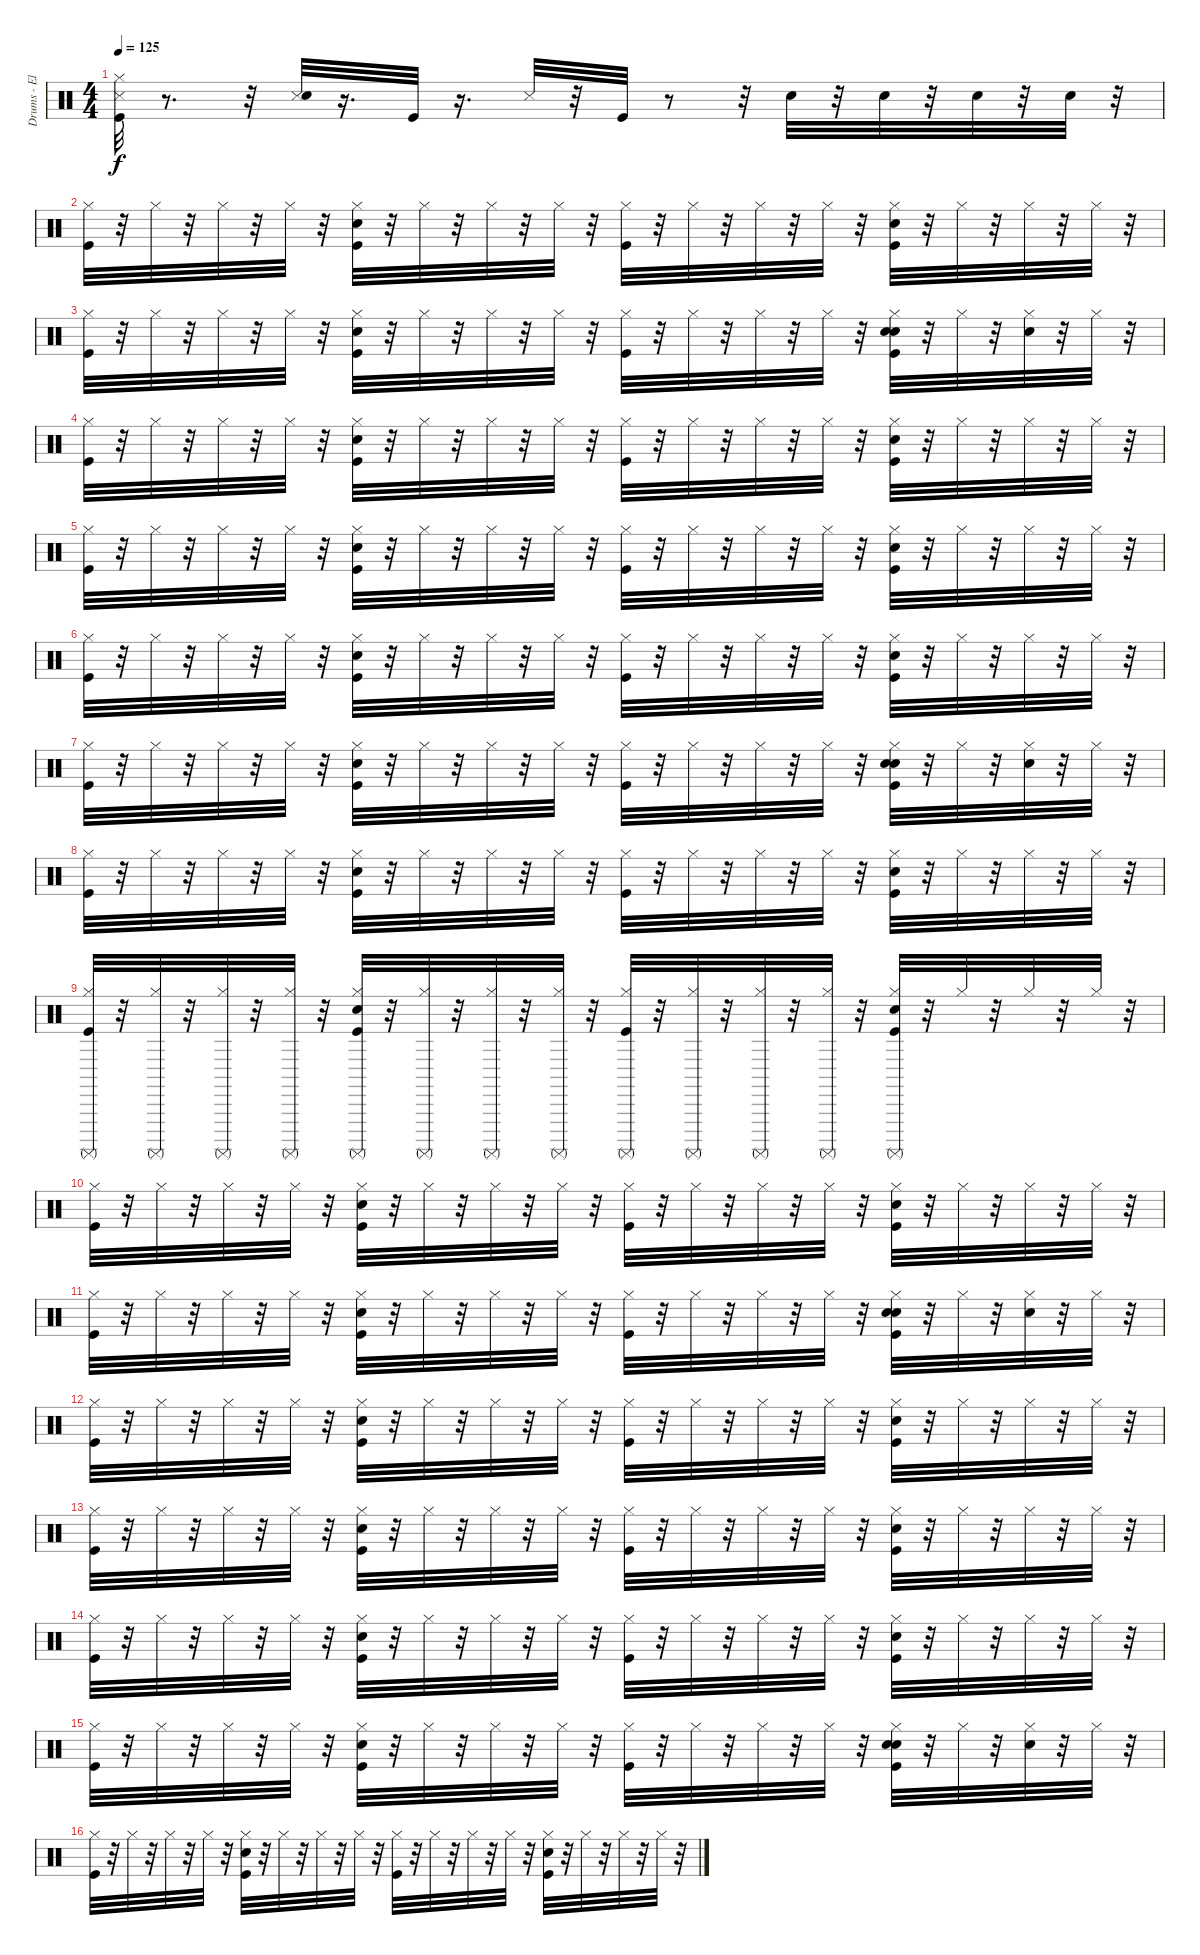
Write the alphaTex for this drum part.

\track ("Drums - El" "Drums - El") {instrument percussion}
\staff {score}
\articulation defaults
\ts (4 4)
\tempo 125
\clef neutral
\ks c
("Kick (hit)" "Snare (side stick) 3" "Hi-Hat (closed)").32{dy f} r.8{d} r.32 ("Snare (side stick) 3" "Electric Snare (hit)").32 r.16{d} "Kick (hit)".32 r.16{d} "Snare (side stick) 3".32 r.32 "Kick (hit)".32 r.8 r.32 "Electric Snare (hit)".32 r.32 "Electric Snare (hit)".32 r.32 "Electric Snare (hit)".32 r.32 "Electric Snare (hit)".32 r.32 |
("Kick (hit)" "Hi-Hat (closed)").32 r.32 "Hi-Hat (closed)".32 r.32 "Hi-Hat (closed)".32 r.32 "Hi-Hat (closed)".32 r.32 ("Kick (hit)" "Electric Snare (hit)" "Hi-Hat (closed)").32 r.32 "Hi-Hat (closed)".32 r.32 "Hi-Hat (closed)".32 r.32 "Hi-Hat (closed)".32 r.32 ("Kick (hit)" "Hi-Hat (closed)").32 r.32 "Hi-Hat (closed)".32 r.32 "Hi-Hat (closed)".32 r.32 "Hi-Hat (closed)".32 r.32 ("Kick (hit)" "Electric Snare (hit)" "Hi-Hat (closed)").32 r.32 "Hi-Hat (closed)".32 r.32 "Hi-Hat (closed)".32 r.32 "Hi-Hat (closed)".32 r.32 |
("Kick (hit)" "Hi-Hat (closed)").32 r.32 "Hi-Hat (closed)".32 r.32 "Hi-Hat (closed)".32 r.32 "Hi-Hat (closed)".32 r.32 ("Kick (hit)" "Electric Snare (hit)" "Hi-Hat (closed)").32 r.32 "Hi-Hat (closed)".32 r.32 "Hi-Hat (closed)".32 r.32 "Hi-Hat (closed)".32 r.32 ("Kick (hit)" "Hi-Hat (closed)").32 r.32 "Hi-Hat (closed)".32 r.32 "Hi-Hat (closed)".32 r.32 "Hi-Hat (closed)".32 r.32 ("Kick (hit)" "Electric Snare (hit)" "Hand Clap (hit)" "Hi-Hat (closed)").32 r.32 "Hi-Hat (closed)".32 r.32 ("Hand Clap (hit)" "Hi-Hat (closed)").32 r.32 "Hi-Hat (closed)".32 r.32 |
("Kick (hit)" "Hi-Hat (closed)").32 r.32 "Hi-Hat (closed)".32 r.32 "Hi-Hat (closed)".32 r.32 "Hi-Hat (closed)".32 r.32 ("Kick (hit)" "Electric Snare (hit)" "Hi-Hat (closed)").32 r.32 "Hi-Hat (closed)".32 r.32 "Hi-Hat (closed)".32 r.32 "Hi-Hat (closed)".32 r.32 ("Kick (hit)" "Hi-Hat (closed)").32 r.32 "Hi-Hat (closed)".32 r.32 "Hi-Hat (closed)".32 r.32 "Hi-Hat (closed)".32 r.32 ("Kick (hit)" "Electric Snare (hit)" "Hi-Hat (closed)").32 r.32 "Hi-Hat (closed)".32 r.32 "Hi-Hat (closed)".32 r.32 "Hi-Hat (closed)".32 r.32 |
("Kick (hit)" "Hi-Hat (closed)").32 r.32 "Hi-Hat (closed)".32 r.32 "Hi-Hat (closed)".32 r.32 "Hi-Hat (closed)".32 r.32 ("Kick (hit)" "Electric Snare (hit)" "Hi-Hat (closed)").32 r.32 "Hi-Hat (closed)".32 r.32 "Hi-Hat (closed)".32 r.32 "Hi-Hat (closed)".32 r.32 ("Kick (hit)" "Hi-Hat (closed)").32 r.32 "Hi-Hat (closed)".32 r.32 "Hi-Hat (closed)".32 r.32 "Hi-Hat (closed)".32 r.32 ("Kick (hit)" "Electric Snare (hit)" "Hi-Hat (closed)").32 r.32 "Hi-Hat (closed)".32 r.32 "Hi-Hat (closed)".32 r.32 "Hi-Hat (closed)".32 r.32 |
("Kick (hit)" "Hi-Hat (closed)").32 r.32 "Hi-Hat (closed)".32 r.32 "Hi-Hat (closed)".32 r.32 "Hi-Hat (closed)".32 r.32 ("Kick (hit)" "Electric Snare (hit)" "Hi-Hat (closed)").32 r.32 "Hi-Hat (closed)".32 r.32 "Hi-Hat (closed)".32 r.32 "Hi-Hat (closed)".32 r.32 ("Kick (hit)" "Hi-Hat (closed)").32 r.32 "Hi-Hat (closed)".32 r.32 "Hi-Hat (closed)".32 r.32 "Hi-Hat (closed)".32 r.32 ("Kick (hit)" "Electric Snare (hit)" "Hi-Hat (closed)").32 r.32 "Hi-Hat (closed)".32 r.32 "Hi-Hat (closed)".32 r.32 "Hi-Hat (closed)".32 r.32 |
("Kick (hit)" "Hi-Hat (closed)").32 r.32 "Hi-Hat (closed)".32 r.32 "Hi-Hat (closed)".32 r.32 "Hi-Hat (closed)".32 r.32 ("Kick (hit)" "Electric Snare (hit)" "Hi-Hat (closed)").32 r.32 "Hi-Hat (closed)".32 r.32 "Hi-Hat (closed)".32 r.32 "Hi-Hat (closed)".32 r.32 ("Kick (hit)" "Hi-Hat (closed)").32 r.32 "Hi-Hat (closed)".32 r.32 "Hi-Hat (closed)".32 r.32 "Hi-Hat (closed)".32 r.32 ("Kick (hit)" "Electric Snare (hit)" "Hand Clap (hit)" "Hi-Hat (closed)").32 r.32 "Hi-Hat (closed)".32 r.32 ("Hand Clap (hit)" "Hi-Hat (closed)").32 r.32 "Hi-Hat (closed)".32 r.32 |
("Kick (hit)" "Hi-Hat (closed)").32 r.32 "Hi-Hat (closed)".32 r.32 "Hi-Hat (closed)".32 r.32 "Hi-Hat (closed)".32 r.32 ("Kick (hit)" "Electric Snare (hit)" "Hi-Hat (closed)").32 r.32 "Hi-Hat (closed)".32 r.32 "Hi-Hat (closed)".32 r.32 "Hi-Hat (closed)".32 r.32 ("Kick (hit)" "Hi-Hat (closed)").32 r.32 "Hi-Hat (closed)".32 r.32 "Hi-Hat (closed)".32 r.32 "Hi-Hat (closed)".32 r.32 ("Kick (hit)" "Electric Snare (hit)" "Hi-Hat (closed)").32 r.32 "Hi-Hat (closed)".32 r.32 "Hi-Hat (closed)".32 r.32 "Hi-Hat (closed)".32 r.32 |
("Kick (hit)" "Hi-Hat (closed)" "Surdo (mute)").32 r.32 ("Hi-Hat (closed)" "Surdo (mute)").32 r.32 ("Hi-Hat (closed)" "Surdo (mute)").32 r.32 ("Hi-Hat (closed)" "Surdo (mute)").32 r.32 ("Kick (hit)" "Electric Snare (hit)" "Hi-Hat (closed)" "Surdo (mute)").32 r.32 ("Hi-Hat (closed)" "Surdo (mute)").32 r.32 ("Hi-Hat (closed)" "Surdo (mute)").32 r.32 ("Hi-Hat (closed)" "Surdo (mute)").32 r.32 ("Kick (hit)" "Hi-Hat (closed)" "Surdo (mute)").32 r.32 ("Hi-Hat (closed)" "Surdo (mute)").32 r.32 ("Hi-Hat (closed)" "Surdo (mute)").32 r.32 ("Hi-Hat (closed)" "Surdo (mute)").32 r.32 ("Kick (hit)" "Electric Snare (hit)" "Hi-Hat (closed)" "Surdo (mute)").32 r.32 "Hi-Hat (closed)".32 r.32 "Hi-Hat (closed)".32 r.32 "Hi-Hat (closed)".32 r.32 |
("Kick (hit)" "Hi-Hat (closed)").32 r.32 "Hi-Hat (closed)".32 r.32 "Hi-Hat (closed)".32 r.32 "Hi-Hat (closed)".32 r.32 ("Kick (hit)" "Electric Snare (hit)" "Hi-Hat (closed)").32 r.32 "Hi-Hat (closed)".32 r.32 "Hi-Hat (closed)".32 r.32 "Hi-Hat (closed)".32 r.32 ("Kick (hit)" "Hi-Hat (closed)").32 r.32 "Hi-Hat (closed)".32 r.32 "Hi-Hat (closed)".32 r.32 "Hi-Hat (closed)".32 r.32 ("Kick (hit)" "Electric Snare (hit)" "Hi-Hat (closed)").32 r.32 "Hi-Hat (closed)".32 r.32 "Hi-Hat (closed)".32 r.32 "Hi-Hat (closed)".32 r.32 |
("Kick (hit)" "Hi-Hat (closed)").32 r.32 "Hi-Hat (closed)".32 r.32 "Hi-Hat (closed)".32 r.32 "Hi-Hat (closed)".32 r.32 ("Kick (hit)" "Electric Snare (hit)" "Hi-Hat (closed)").32 r.32 "Hi-Hat (closed)".32 r.32 "Hi-Hat (closed)".32 r.32 "Hi-Hat (closed)".32 r.32 ("Kick (hit)" "Hi-Hat (closed)").32 r.32 "Hi-Hat (closed)".32 r.32 "Hi-Hat (closed)".32 r.32 "Hi-Hat (closed)".32 r.32 ("Kick (hit)" "Electric Snare (hit)" "Hand Clap (hit)" "Hi-Hat (closed)").32 r.32 "Hi-Hat (closed)".32 r.32 ("Hand Clap (hit)" "Hi-Hat (closed)").32 r.32 "Hi-Hat (closed)".32 r.32 |
("Kick (hit)" "Hi-Hat (closed)").32 r.32 "Hi-Hat (closed)".32 r.32 "Hi-Hat (closed)".32 r.32 "Hi-Hat (closed)".32 r.32 ("Kick (hit)" "Electric Snare (hit)" "Hi-Hat (closed)").32 r.32 "Hi-Hat (closed)".32 r.32 "Hi-Hat (closed)".32 r.32 "Hi-Hat (closed)".32 r.32 ("Kick (hit)" "Hi-Hat (closed)").32 r.32 "Hi-Hat (closed)".32 r.32 "Hi-Hat (closed)".32 r.32 "Hi-Hat (closed)".32 r.32 ("Kick (hit)" "Electric Snare (hit)" "Hi-Hat (closed)").32 r.32 "Hi-Hat (closed)".32 r.32 "Hi-Hat (closed)".32 r.32 "Hi-Hat (closed)".32 r.32 |
("Kick (hit)" "Hi-Hat (closed)").32 r.32 "Hi-Hat (closed)".32 r.32 "Hi-Hat (closed)".32 r.32 "Hi-Hat (closed)".32 r.32 ("Kick (hit)" "Electric Snare (hit)" "Hi-Hat (closed)").32 r.32 "Hi-Hat (closed)".32 r.32 "Hi-Hat (closed)".32 r.32 "Hi-Hat (closed)".32 r.32 ("Kick (hit)" "Hi-Hat (closed)").32 r.32 "Hi-Hat (closed)".32 r.32 "Hi-Hat (closed)".32 r.32 "Hi-Hat (closed)".32 r.32 ("Kick (hit)" "Electric Snare (hit)" "Hi-Hat (closed)").32 r.32 "Hi-Hat (closed)".32 r.32 "Hi-Hat (closed)".32 r.32 "Hi-Hat (closed)".32 r.32 |
("Kick (hit)" "Hi-Hat (closed)").32 r.32 "Hi-Hat (closed)".32 r.32 "Hi-Hat (closed)".32 r.32 "Hi-Hat (closed)".32 r.32 ("Kick (hit)" "Electric Snare (hit)" "Hi-Hat (closed)").32 r.32 "Hi-Hat (closed)".32 r.32 "Hi-Hat (closed)".32 r.32 "Hi-Hat (closed)".32 r.32 ("Kick (hit)" "Hi-Hat (closed)").32 r.32 "Hi-Hat (closed)".32 r.32 "Hi-Hat (closed)".32 r.32 "Hi-Hat (closed)".32 r.32 ("Kick (hit)" "Electric Snare (hit)" "Hi-Hat (closed)").32 r.32 "Hi-Hat (closed)".32 r.32 "Hi-Hat (closed)".32 r.32 "Hi-Hat (closed)".32 r.32 |
("Kick (hit)" "Hi-Hat (closed)").32 r.32 "Hi-Hat (closed)".32 r.32 "Hi-Hat (closed)".32 r.32 "Hi-Hat (closed)".32 r.32 ("Kick (hit)" "Electric Snare (hit)" "Hi-Hat (closed)").32 r.32 "Hi-Hat (closed)".32 r.32 "Hi-Hat (closed)".32 r.32 "Hi-Hat (closed)".32 r.32 ("Kick (hit)" "Hi-Hat (closed)").32 r.32 "Hi-Hat (closed)".32 r.32 "Hi-Hat (closed)".32 r.32 "Hi-Hat (closed)".32 r.32 ("Kick (hit)" "Electric Snare (hit)" "Hand Clap (hit)" "Hi-Hat (closed)").32 r.32 "Hi-Hat (closed)".32 r.32 ("Hand Clap (hit)" "Hi-Hat (closed)").32 r.32 "Hi-Hat (closed)".32 r.32 |
("Kick (hit)" "Hi-Hat (closed)").32 r.32 "Hi-Hat (closed)".32 r.32 "Hi-Hat (closed)".32 r.32 "Hi-Hat (closed)".32 r.32 ("Kick (hit)" "Electric Snare (hit)" "Hi-Hat (closed)").32 r.32 "Hi-Hat (closed)".32 r.32 "Hi-Hat (closed)".32 r.32 "Hi-Hat (closed)".32 r.32 ("Kick (hit)" "Hi-Hat (closed)").32 r.32 "Hi-Hat (closed)".32 r.32 "Hi-Hat (closed)".32 r.32 "Hi-Hat (closed)".32 r.32 ("Kick (hit)" "Electric Snare (hit)" "Hi-Hat (closed)").32 r.32 "Hi-Hat (closed)".32 r.32 "Hi-Hat (closed)".32 r.32 "Hi-Hat (closed)".32 r.32
